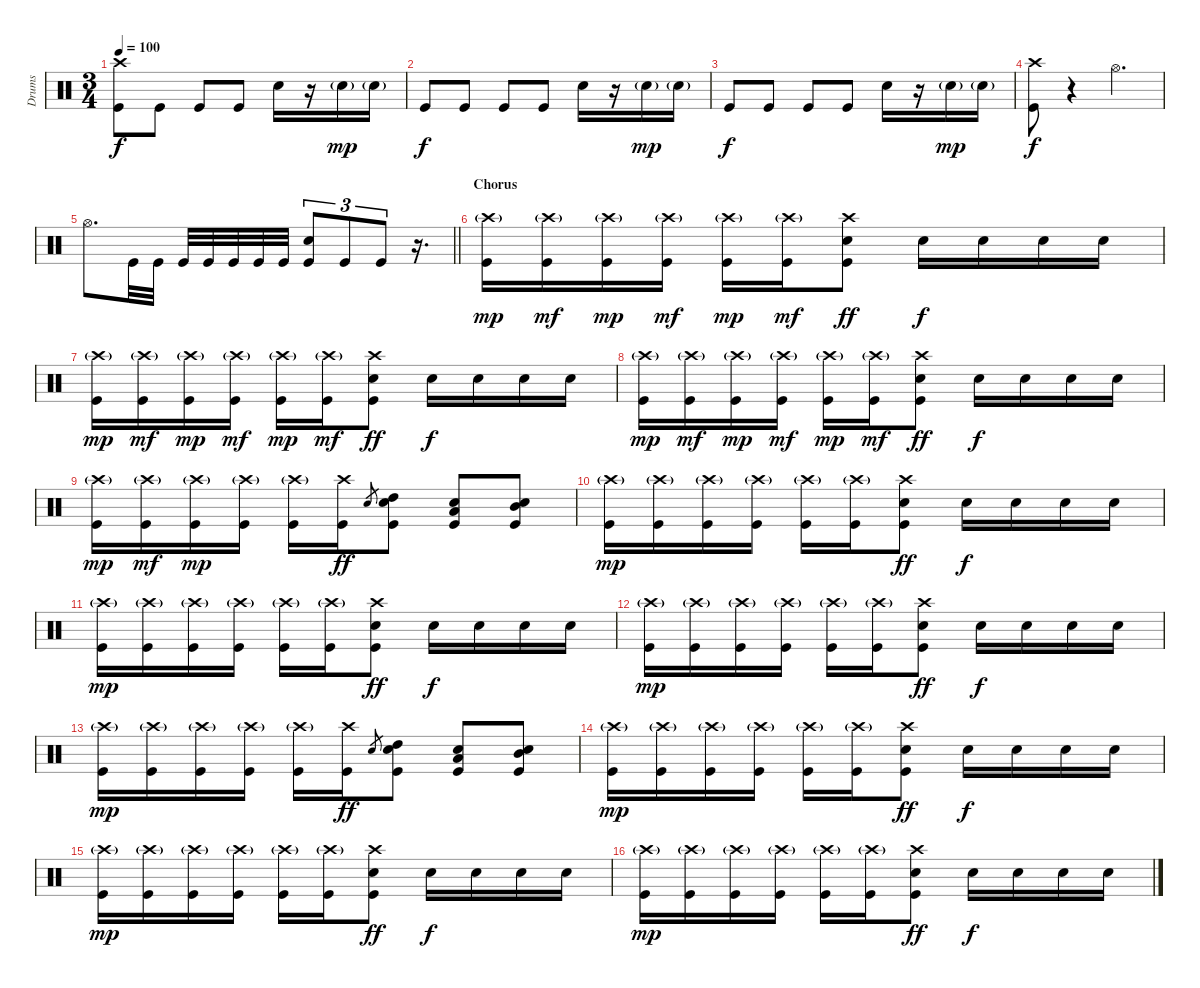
\track ("Drums" "Drums") {instrument percussion}
\staff {score}
\articulation defaults
\ts (3 4)
\tempo 100
\clef neutral
\ks c
("Crash high (hit)" "Kick (hit)").8{dy f} "Kick (hit)".8 "Kick (hit)".8 "Kick (hit)".8 "Electric Snare (hit)".16 r.16 "Electric Snare (hit)"{g}.16{dy mp} "Electric Snare (hit)"{g}.16 |
"Kick (hit)".8{dy f} "Kick (hit)".8 "Kick (hit)".8 "Kick (hit)".8 "Electric Snare (hit)".16 r.16 "Electric Snare (hit)"{g}.16{dy mp} "Electric Snare (hit)"{g}.16 |
"Kick (hit)".8{dy f} "Kick (hit)".8 "Kick (hit)".8 "Kick (hit)".8 "Electric Snare (hit)".16 r.16 "Electric Snare (hit)"{g}.16{dy mp} "Electric Snare (hit)"{g}.16 |
("Crash high (hit)" "Kick (hit)").8{dy f} r.4 "Hi-Hat (open)".4{d} |
\barLineRight lightlight "Hi-Hat (open)".8{d} "Kick (hit)".32 "Kick (hit)".32 "Kick (hit)".32 "Kick (hit)".32 "Kick (hit)".32 "Kick (hit)".32 "Kick (hit)".32
("Electric Snare (hit)" "Kick (hit)").8{tu (3 2)} "Kick (hit)".8{tu (3 2)} "Kick (hit)".8{tu (3 2)} r.16{d} |
\section ("" "Chorus")
("Crash high (hit)"{g} "Kick (hit)").16{dy mp} ("Crash high (hit)"{g} "Kick (hit)").16{dy mf} ("Crash high (hit)"{g} "Kick (hit)").16{dy mp} ("Crash high (hit)"{g} "Kick (hit)").16{dy mf} ("Crash high (hit)"{g} "Kick (hit)").16{dy mp} ("Crash high (hit)"{g} "Kick (hit)").16{dy mf} ("Crash high (hit)" "Electric Snare (hit)" "Kick (hit)").8{dy ff} "Electric Snare (hit)".16{dy f} "Electric Snare (hit)".16 "Electric Snare (hit)".16 "Electric Snare (hit)".16 |
("Crash high (hit)"{g} "Kick (hit)").16{dy mp} ("Crash high (hit)"{g} "Kick (hit)").16{dy mf} ("Crash high (hit)"{g} "Kick (hit)").16{dy mp} ("Crash high (hit)"{g} "Kick (hit)").16{dy mf} ("Crash high (hit)"{g} "Kick (hit)").16{dy mp} ("Crash high (hit)"{g} "Kick (hit)").16{dy mf} ("Crash high (hit)" "Electric Snare (hit)" "Kick (hit)").8{dy ff} "Electric Snare (hit)".16{dy f} "Electric Snare (hit)".16 "Electric Snare (hit)".16 "Electric Snare (hit)".16 |
("Crash high (hit)"{g} "Kick (hit)").16{dy mp} ("Crash high (hit)"{g} "Kick (hit)").16{dy mf} ("Crash high (hit)"{g} "Kick (hit)").16{dy mp} ("Crash high (hit)"{g} "Kick (hit)").16{dy mf} ("Crash high (hit)"{g} "Kick (hit)").16{dy mp} ("Crash high (hit)"{g} "Kick (hit)").16{dy mf} ("Crash high (hit)" "Electric Snare (hit)" "Kick (hit)").8{dy ff} "Electric Snare (hit)".16{dy f} "Electric Snare (hit)".16 "Electric Snare (hit)".16 "Electric Snare (hit)".16 |
("Crash high (hit)"{g} "Kick (hit)").16{dy mp} ("Crash high (hit)"{g} "Kick (hit)").16{dy mf} ("Crash high (hit)"{g} "Kick (hit)").16{dy mp} ("Crash high (hit)"{g} "Kick (hit)").16 ("Crash high (hit)"{g} "Kick (hit)").16 ("Crash high (hit)" "Kick (hit)").16{dy ff} "Electric Snare (hit)".8{gr} ("Electric Snare (hit)" "High Tom (hit)" "Kick (hit)").8 ("Electric Snare (hit)" "Low Tom (hit)" "Kick (hit)").8 ("Electric Snare (hit)" "Mid Tom (hit)" "Kick (hit)").8 |
("Crash high (hit)"{g} "Kick (hit)").16{dy mp} ("Crash high (hit)"{g} "Kick (hit)").16 ("Crash high (hit)"{g} "Kick (hit)").16 ("Crash high (hit)"{g} "Kick (hit)").16 ("Crash high (hit)"{g} "Kick (hit)").16 ("Crash high (hit)"{g} "Kick (hit)").16 ("Crash high (hit)" "Electric Snare (hit)" "Kick (hit)").8{dy ff} "Electric Snare (hit)".16{dy f} "Electric Snare (hit)".16 "Electric Snare (hit)".16 "Electric Snare (hit)".16 |
("Crash high (hit)"{g} "Kick (hit)").16{dy mp} ("Crash high (hit)"{g} "Kick (hit)").16 ("Crash high (hit)"{g} "Kick (hit)").16 ("Crash high (hit)"{g} "Kick (hit)").16 ("Crash high (hit)"{g} "Kick (hit)").16 ("Crash high (hit)"{g} "Kick (hit)").16 ("Crash high (hit)" "Electric Snare (hit)" "Kick (hit)").8{dy ff} "Electric Snare (hit)".16{dy f} "Electric Snare (hit)".16 "Electric Snare (hit)".16 "Electric Snare (hit)".16 |
("Crash high (hit)"{g} "Kick (hit)").16{dy mp} ("Crash high (hit)"{g} "Kick (hit)").16 ("Crash high (hit)"{g} "Kick (hit)").16 ("Crash high (hit)"{g} "Kick (hit)").16 ("Crash high (hit)"{g} "Kick (hit)").16 ("Crash high (hit)"{g} "Kick (hit)").16 ("Crash high (hit)" "Electric Snare (hit)" "Kick (hit)").8{dy ff} "Electric Snare (hit)".16{dy f} "Electric Snare (hit)".16 "Electric Snare (hit)".16 "Electric Snare (hit)".16 |
("Crash high (hit)"{g} "Kick (hit)").16{dy mp} ("Crash high (hit)"{g} "Kick (hit)").16 ("Crash high (hit)"{g} "Kick (hit)").16 ("Crash high (hit)"{g} "Kick (hit)").16 ("Crash high (hit)"{g} "Kick (hit)").16 ("Crash high (hit)" "Kick (hit)").16{dy ff} "Electric Snare (hit)".8{gr} ("Electric Snare (hit)" "High Tom (hit)" "Kick (hit)").8 ("Electric Snare (hit)" "Low Tom (hit)" "Kick (hit)").8 ("Electric Snare (hit)" "Mid Tom (hit)" "Kick (hit)").8 |
("Crash high (hit)"{g} "Kick (hit)").16{dy mp} ("Crash high (hit)"{g} "Kick (hit)").16 ("Crash high (hit)"{g} "Kick (hit)").16 ("Crash high (hit)"{g} "Kick (hit)").16 ("Crash high (hit)"{g} "Kick (hit)").16 ("Crash high (hit)"{g} "Kick (hit)").16 ("Crash high (hit)" "Electric Snare (hit)" "Kick (hit)").8{dy ff} "Electric Snare (hit)".16{dy f} "Electric Snare (hit)".16 "Electric Snare (hit)".16 "Electric Snare (hit)".16 |
("Crash high (hit)"{g} "Kick (hit)").16{dy mp} ("Crash high (hit)"{g} "Kick (hit)").16 ("Crash high (hit)"{g} "Kick (hit)").16 ("Crash high (hit)"{g} "Kick (hit)").16 ("Crash high (hit)"{g} "Kick (hit)").16 ("Crash high (hit)"{g} "Kick (hit)").16 ("Crash high (hit)" "Electric Snare (hit)" "Kick (hit)").8{dy ff} "Electric Snare (hit)".16{dy f} "Electric Snare (hit)".16 "Electric Snare (hit)".16 "Electric Snare (hit)".16 |
("Crash high (hit)"{g} "Kick (hit)").16{dy mp} ("Crash high (hit)"{g} "Kick (hit)").16 ("Crash high (hit)"{g} "Kick (hit)").16 ("Crash high (hit)"{g} "Kick (hit)").16 ("Crash high (hit)"{g} "Kick (hit)").16 ("Crash high (hit)"{g} "Kick (hit)").16 ("Crash high (hit)" "Electric Snare (hit)" "Kick (hit)").8{dy ff} "Electric Snare (hit)".16{dy f} "Electric Snare (hit)".16 "Electric Snare (hit)".16 "Electric Snare (hit)".16
